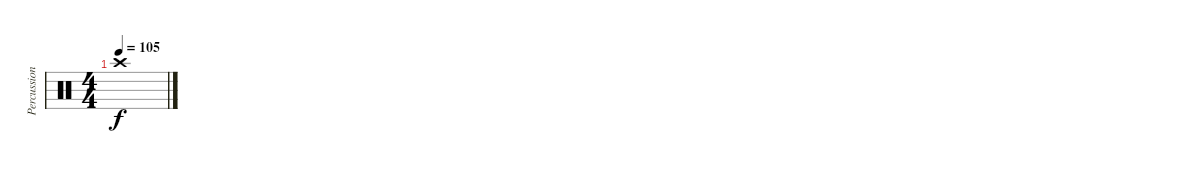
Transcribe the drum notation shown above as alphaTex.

\track ("Percussion" "Percussion") {instrument percussion}
\staff {score}
\articulation defaults
\ts (4 4)
\tempo 105
\clef neutral
\ks c "Crash high (hit)".1{dy f}
